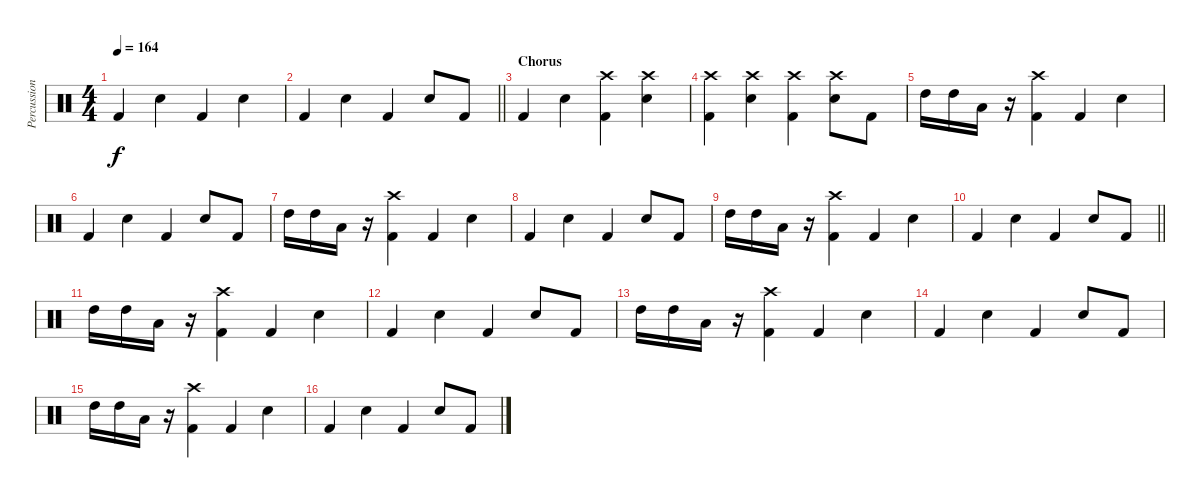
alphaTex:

\track ("Percussions" "Percussion") {instrument percussion}
\staff {score}
\articulation defaults
\ts (4 4)
\tempo 164
\clef neutral
\ks c "Kick (hit) 2".4{dy f} "Snare (hit) 2".4 "Kick (hit) 2".4 "Snare (hit) 2".4
|
\barLineRight lightlight "Kick (hit) 2".4 "Snare (hit) 2".4 "Kick (hit) 2".4 "Snare (hit) 2".8 "Kick (hit) 2".8
|
\section ("" "Chorus")
"Kick (hit) 2".4 "Snare (hit) 2".4 ("Crash high (hit)" "Kick (hit) 2").4 ("Crash high (hit)" "Snare (hit) 2").4 |
("Crash high (hit)" "Kick (hit) 2").4 ("Crash high (hit)" "Snare (hit) 2").4 ("Crash high (hit)" "Kick (hit) 2").4 ("Crash high (hit)" "Snare (hit) 2").8 "Kick (hit) 2".8 |
"High Tom (hit)".16 "High Tom (hit)".16 "Low Tom (hit)".16 r.16 ("Crash high (hit)" "Kick (hit) 2").4 "Kick (hit) 2".4 "Snare (hit) 2".4 |
"Kick (hit) 2".4 "Snare (hit) 2".4 "Kick (hit) 2".4 "Snare (hit) 2".8 "Kick (hit) 2".8 |
"High Tom (hit)".16 "High Tom (hit)".16 "Low Tom (hit)".16 r.16 ("Crash high (hit)" "Kick (hit) 2").4 "Kick (hit) 2".4 "Snare (hit) 2".4 |
"Kick (hit) 2".4 "Snare (hit) 2".4 "Kick (hit) 2".4 "Snare (hit) 2".8 "Kick (hit) 2".8 |
"High Tom (hit)".16 "High Tom (hit)".16 "Low Tom (hit)".16 r.16 ("Crash high (hit)" "Kick (hit) 2").4 "Kick (hit) 2".4 "Snare (hit) 2".4 |
\barLineRight lightlight "Kick (hit) 2".4 "Snare (hit) 2".4 "Kick (hit) 2".4 "Snare (hit) 2".8 "Kick (hit) 2".8
|
"High Tom (hit)".16 "High Tom (hit)".16 "Low Tom (hit)".16 r.16 ("Crash high (hit)" "Kick (hit) 2").4 "Kick (hit) 2".4 "Snare (hit) 2".4 |
"Kick (hit) 2".4 "Snare (hit) 2".4 "Kick (hit) 2".4 "Snare (hit) 2".8 "Kick (hit) 2".8 |
"High Tom (hit)".16 "High Tom (hit)".16 "Low Tom (hit)".16 r.16 ("Crash high (hit)" "Kick (hit) 2").4 "Kick (hit) 2".4 "Snare (hit) 2".4 |
"Kick (hit) 2".4 "Snare (hit) 2".4 "Kick (hit) 2".4 "Snare (hit) 2".8 "Kick (hit) 2".8 |
"High Tom (hit)".16 "High Tom (hit)".16 "Low Tom (hit)".16 r.16 ("Crash high (hit)" "Kick (hit) 2").4 "Kick (hit) 2".4 "Snare (hit) 2".4 |
"Kick (hit) 2".4 "Snare (hit) 2".4 "Kick (hit) 2".4 "Snare (hit) 2".8 "Kick (hit) 2".8
